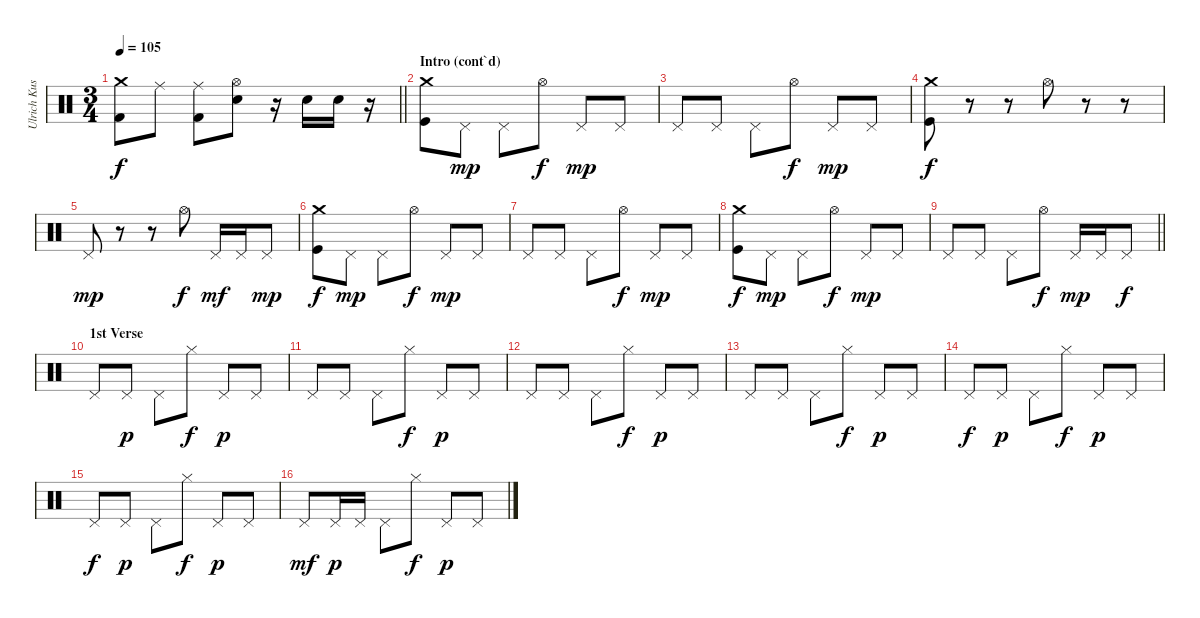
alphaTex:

\track ("Ulrich Kusch" "Ulrich Kus") {instrument percussion}
\staff {score}
\articulation defaults
\ts (3 4)
\tempo 105
\clef neutral
\barLineRight lightlight
\ks c
("Crash medium (hit)" "Kick (hit) 2").8{dy f} "Ride (middle)".8 ("Ride (middle)" "Kick (hit) 2").8 ("Hi-Hat (open)" "Electric Snare (hit)").8 r.16 "Electric Snare (hit)".16 "Electric Snare (hit)".16 r.16 |
\section ("" "Intro (cont`d)")
("Crash medium (hit)" "Kick (hit)").8 "Pedal Hi-Hat (hit)".8{dy mp} "Pedal Hi-Hat (hit)".8 "Hi-Hat (open)".8{dy f} "Pedal Hi-Hat (hit)".8{dy mp} "Pedal Hi-Hat (hit)".8 |
"Pedal Hi-Hat (hit)".8 "Pedal Hi-Hat (hit)".8 "Pedal Hi-Hat (hit)".8 "Hi-Hat (open)".8{dy f} "Pedal Hi-Hat (hit)".8{dy mp} "Pedal Hi-Hat (hit)".8 |
("Crash medium (hit)" "Kick (hit)").8{dy f} r.8 r.8 "Hi-Hat (open)".8 r.8 r.8 |
"Pedal Hi-Hat (hit)".8{dy mp} r.8 r.8 "Hi-Hat (open)".8{dy f} "Pedal Hi-Hat (hit)".16{dy mf} "Pedal Hi-Hat (hit)".16 "Pedal Hi-Hat (hit)".8{dy mp} |
("Crash medium (hit)" "Kick (hit)").8{dy f} "Pedal Hi-Hat (hit)".8{dy mp} "Pedal Hi-Hat (hit)".8 "Hi-Hat (open)".8{dy f} "Pedal Hi-Hat (hit)".8{dy mp} "Pedal Hi-Hat (hit)".8 |
"Pedal Hi-Hat (hit)".8 "Pedal Hi-Hat (hit)".8 "Pedal Hi-Hat (hit)".8 "Hi-Hat (open)".8{dy f} "Pedal Hi-Hat (hit)".8{dy mp} "Pedal Hi-Hat (hit)".8 |
("Crash medium (hit)" "Kick (hit)").8{dy f} "Pedal Hi-Hat (hit)".8{dy mp} "Pedal Hi-Hat (hit)".8 "Hi-Hat (open)".8{dy f} "Pedal Hi-Hat (hit)".8{dy mp} "Pedal Hi-Hat (hit)".8 |
\barLineRight lightlight "Pedal Hi-Hat (hit)".8 "Pedal Hi-Hat (hit)".8 "Pedal Hi-Hat (hit)".8 "Hi-Hat (open)".8{dy f} "Pedal Hi-Hat (hit)".16{dy mp} "Pedal Hi-Hat (hit)".16 "Pedal Hi-Hat (hit)".8{dy f}
|
\section ("" "1st Verse")
"Pedal Hi-Hat (hit)".8 "Pedal Hi-Hat (hit)".8{dy p} "Pedal Hi-Hat (hit)".8 "Hi-Hat (closed)".8{dy f} "Pedal Hi-Hat (hit)".8{dy p} "Pedal Hi-Hat (hit)".8 |
"Pedal Hi-Hat (hit)".8 "Pedal Hi-Hat (hit)".8 "Pedal Hi-Hat (hit)".8 "Hi-Hat (closed)".8{dy f} "Pedal Hi-Hat (hit)".8{dy p} "Pedal Hi-Hat (hit)".8 |
"Pedal Hi-Hat (hit)".8 "Pedal Hi-Hat (hit)".8 "Pedal Hi-Hat (hit)".8 "Hi-Hat (closed)".8{dy f} "Pedal Hi-Hat (hit)".8{dy p} "Pedal Hi-Hat (hit)".8 |
"Pedal Hi-Hat (hit)".8 "Pedal Hi-Hat (hit)".8 "Pedal Hi-Hat (hit)".8 "Hi-Hat (closed)".8{dy f} "Pedal Hi-Hat (hit)".8{dy p} "Pedal Hi-Hat (hit)".8 |
"Pedal Hi-Hat (hit)".8{dy f} "Pedal Hi-Hat (hit)".8{dy p} "Pedal Hi-Hat (hit)".8 "Hi-Hat (closed)".8{dy f} "Pedal Hi-Hat (hit)".8{dy p} "Pedal Hi-Hat (hit)".8 |
"Pedal Hi-Hat (hit)".8{dy f} "Pedal Hi-Hat (hit)".8{dy p} "Pedal Hi-Hat (hit)".8 "Hi-Hat (closed)".8{dy f} "Pedal Hi-Hat (hit)".8{dy p} "Pedal Hi-Hat (hit)".8 |
"Pedal Hi-Hat (hit)".8{dy mf} "Pedal Hi-Hat (hit)".16{dy p} "Pedal Hi-Hat (hit)".16 "Pedal Hi-Hat (hit)".8 "Hi-Hat (closed)".8{dy f} "Pedal Hi-Hat (hit)".8{dy p} "Pedal Hi-Hat (hit)".8
